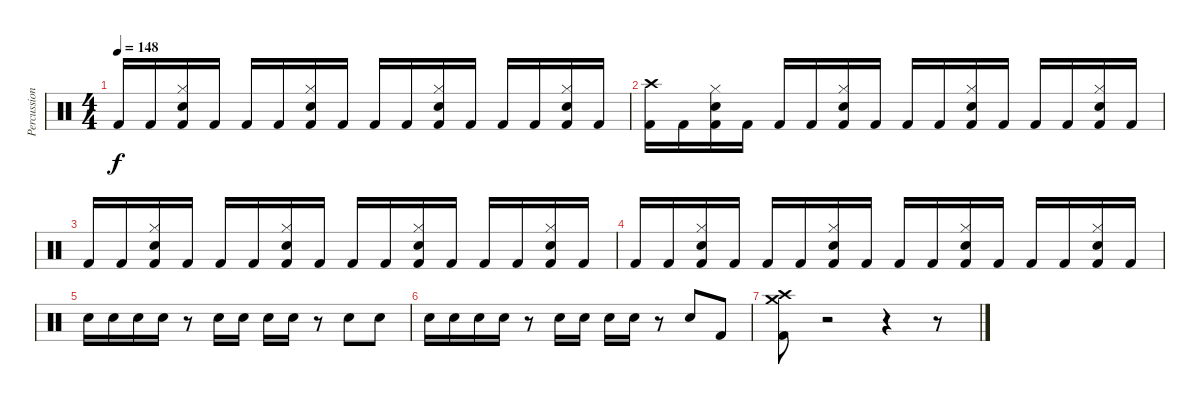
\track ("Percussion" "Percussion") {instrument percussion}
\staff {score}
\articulation defaults
\ts (4 4)
\tempo 148
\clef neutral
\ks c "Kick (hit) 2".16{dy f} "Kick (hit) 2".16
("Hi-Hat (closed)" "Snare (hit) 2" "Kick (hit) 2").16 "Kick (hit) 2".16 "Kick (hit) 2".16 "Kick (hit) 2".16 ("Hi-Hat (closed)" "Snare (hit) 2" "Kick (hit) 2").16 "Kick (hit) 2".16 "Kick (hit) 2".16 "Kick (hit) 2".16 ("Hi-Hat (closed)" "Snare (hit) 2" "Kick (hit) 2").16 "Kick (hit) 2".16 "Kick (hit) 2".16 "Kick (hit) 2".16 ("Hi-Hat (closed)" "Snare (hit) 2" "Kick (hit) 2").16 "Kick (hit) 2".16 |
("Crash high (hit)" "Kick (hit) 2").16 "Kick (hit) 2".16 ("Hi-Hat (closed)" "Snare (hit) 2" "Kick (hit) 2").16 "Kick (hit) 2".16 "Kick (hit) 2".16 "Kick (hit) 2".16 ("Hi-Hat (closed)" "Snare (hit) 2" "Kick (hit) 2").16 "Kick (hit) 2".16 "Kick (hit) 2".16 "Kick (hit) 2".16 ("Hi-Hat (closed)" "Snare (hit) 2" "Kick (hit) 2").16 "Kick (hit) 2".16 "Kick (hit) 2".16 "Kick (hit) 2".16 ("Hi-Hat (closed)" "Snare (hit) 2" "Kick (hit) 2").16 "Kick (hit) 2".16 |
"Kick (hit) 2".16 "Kick (hit) 2".16 ("Hi-Hat (closed)" "Snare (hit) 2" "Kick (hit) 2").16 "Kick (hit) 2".16 "Kick (hit) 2".16 "Kick (hit) 2".16 ("Hi-Hat (closed)" "Snare (hit) 2" "Kick (hit) 2").16 "Kick (hit) 2".16 "Kick (hit) 2".16 "Kick (hit) 2".16 ("Hi-Hat (closed)" "Snare (hit) 2" "Kick (hit) 2").16 "Kick (hit) 2".16 "Kick (hit) 2".16 "Kick (hit) 2".16 ("Hi-Hat (closed)" "Snare (hit) 2" "Kick (hit) 2").16 "Kick (hit) 2".16 |
"Kick (hit) 2".16 "Kick (hit) 2".16 ("Hi-Hat (closed)" "Snare (hit) 2" "Kick (hit) 2").16 "Kick (hit) 2".16 "Kick (hit) 2".16 "Kick (hit) 2".16 ("Hi-Hat (closed)" "Snare (hit) 2" "Kick (hit) 2").16 "Kick (hit) 2".16 "Kick (hit) 2".16 "Kick (hit) 2".16 ("Hi-Hat (closed)" "Snare (hit) 2" "Kick (hit) 2").16 "Kick (hit) 2".16 "Kick (hit) 2".16 "Kick (hit) 2".16 ("Hi-Hat (closed)" "Snare (hit) 2" "Kick (hit) 2").16 "Kick (hit) 2".16 |
"Snare (hit) 2".16 "Snare (hit) 2".16 "Snare (hit) 2".16 "Snare (hit) 2".16 r.8 "Snare (hit) 2".16 "Snare (hit) 2".16 "Snare (hit) 2".16 "Snare (hit) 2".16 r.8 "Snare (hit) 2".8 "Snare (hit) 2".8 |
"Snare (hit) 2".16 "Snare (hit) 2".16 "Snare (hit) 2".16 "Snare (hit) 2".16 r.8 "Snare (hit) 2".16 "Snare (hit) 2".16 "Snare (hit) 2".16 "Snare (hit) 2".16 r.8 "Snare (hit) 2".8 "Kick (hit) 2".8 |
("Crash high (hit)" "Crash medium (hit)" "Kick (hit) 2").8 r.2 r.4 r.8
